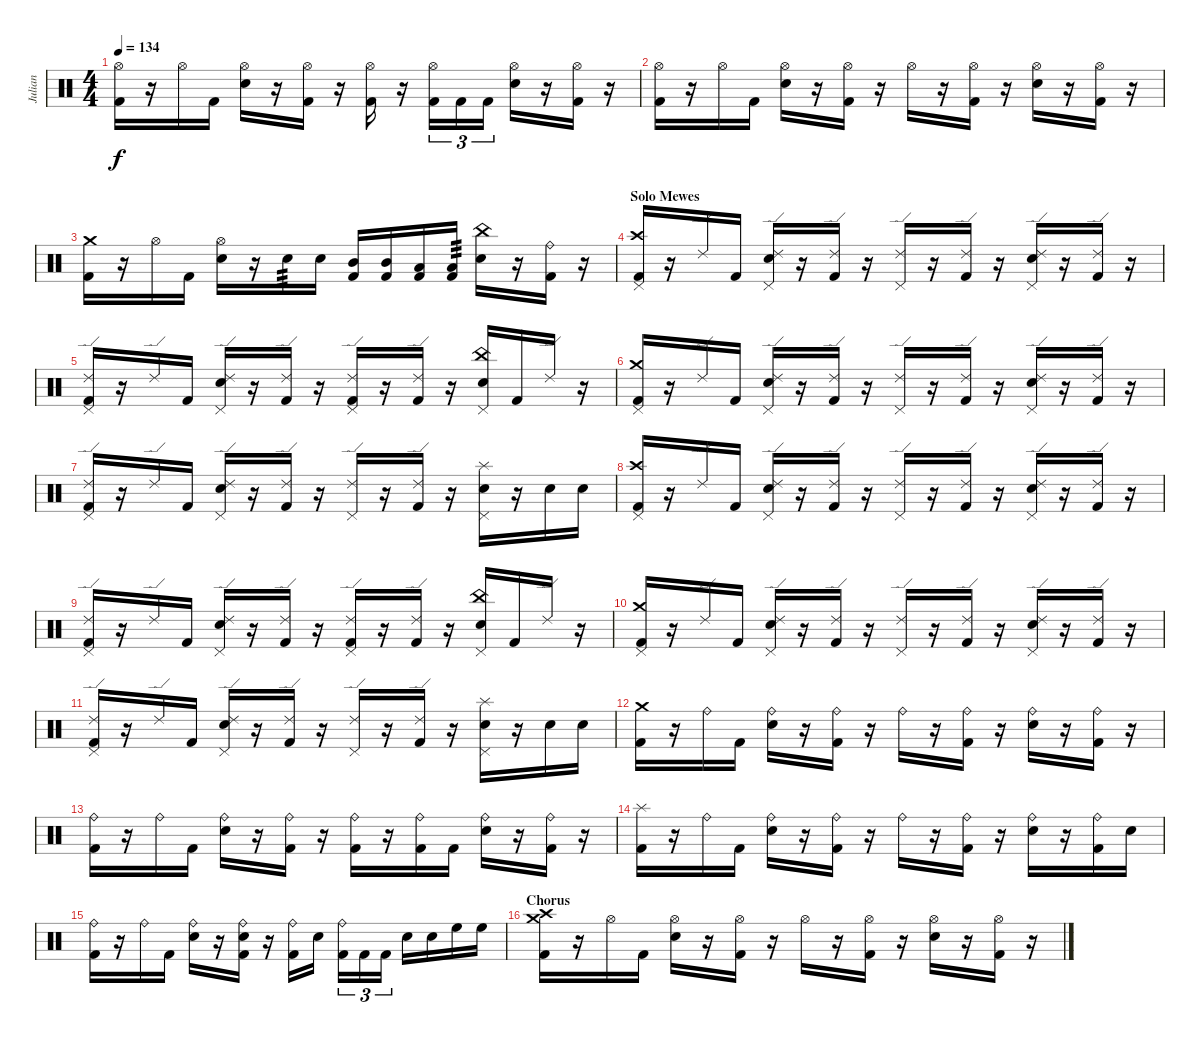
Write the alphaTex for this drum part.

\track ("Julian" "Julian") {instrument percussion}
\staff {score}
\articulation defaults
\ts (4 4)
\tempo 134
\clef neutral
\ks c
("Hi-Hat (open)" "Kick (hit) 2").16{dy f} r.16 "Hi-Hat (open)".16 "Kick (hit) 2".16 ("Hi-Hat (open)" "Electric Snare (hit)").16 r.16 ("Hi-Hat (open)" "Kick (hit) 2").16 r.16 ("Hi-Hat (open)" "Kick (hit) 2").16 r.16 ("Hi-Hat (open)" "Kick (hit) 2").16{tu (3 2)} "Kick (hit) 2".16{tu (3 2)} "Kick (hit) 2".16{tu (3 2)} ("Hi-Hat (open)" "Electric Snare (hit)").16 r.16 ("Hi-Hat (open)" "Kick (hit) 2").16 r.16 |
("Hi-Hat (open)" "Kick (hit) 2").16 r.16 "Hi-Hat (open)".16 "Kick (hit) 2".16 ("Hi-Hat (open)" "Electric Snare (hit)").16 r.16 ("Hi-Hat (open)" "Kick (hit) 2").16 r.16 "Hi-Hat (open)".16 r.16 ("Hi-Hat (open)" "Kick (hit) 2").16 r.16 ("Hi-Hat (open)" "Electric Snare (hit)").16 r.16 ("Hi-Hat (open)" "Kick (hit) 2").16 r.16 |
("Crash medium (hit)" "Kick (hit) 2").16 r.16 "Hi-Hat (open)".16 "Kick (hit) 2".16 ("Hi-Hat (open)" "Electric Snare (hit)").16 r.16 "Electric Snare (hit)".16{tp 3} "Electric Snare (hit)".16 ("Mid Tom (hit)" "Kick (hit) 2").16 ("Mid Tom (hit)" "Kick (hit) 2").16 ("Low Tom (hit)" "Kick (hit) 2").16 ("Low Tom (hit)" "Kick (hit) 2").16{tp 3} ("China (hit)" "Electric Snare (hit)").16 r.16 ("Ride (bell)" "Kick (hit) 2").16 r.16 |
\section ("" "Solo Mewes")
("Crash high (hit)" "Pedal Hi-Hat (hit)" "Kick (hit) 2").16 r.16 "Ride (edge) 2".16 "Kick (hit) 2".16 ("Ride (edge) 2" "Electric Snare (hit)" "Pedal Hi-Hat (hit)").16 r.16 ("Ride (edge) 2" "Kick (hit) 2").16 r.16 ("Ride (edge) 2" "Pedal Hi-Hat (hit)").16 r.16 ("Ride (edge) 2" "Kick (hit) 2").16 r.16 ("Ride (edge) 2" "Electric Snare (hit)" "Pedal Hi-Hat (hit)").16 r.16 ("Ride (edge) 2" "Kick (hit) 2").16 r.16 |
("Ride (edge) 2" "Pedal Hi-Hat (hit)" "Kick (hit) 2").16 r.16 "Ride (edge) 2".16 "Kick (hit) 2".16 ("Ride (edge) 2" "Electric Snare (hit)" "Pedal Hi-Hat (hit)").16 r.16 ("Ride (edge) 2" "Kick (hit) 2").16 r.16 ("Ride (edge) 2" "Pedal Hi-Hat (hit)" "Kick (hit) 2").16 r.16 ("Ride (edge) 2" "Kick (hit) 2").16 r.16 ("China (hit)" "Electric Snare (hit)" "Pedal Hi-Hat (hit)").16 "Kick (hit) 2".16 "Ride (edge) 2".16 r.16 |
("Crash medium (hit)" "Pedal Hi-Hat (hit)" "Kick (hit) 2").16 r.16 "Ride (edge) 2".16 "Kick (hit) 2".16 ("Ride (edge) 2" "Electric Snare (hit)" "Pedal Hi-Hat (hit)").16 r.16 ("Ride (edge) 2" "Kick (hit) 2").16 r.16 ("Ride (edge) 2" "Pedal Hi-Hat (hit)").16 r.16 ("Ride (edge) 2" "Kick (hit) 2").16 r.16 ("Ride (edge) 2" "Electric Snare (hit)" "Pedal Hi-Hat (hit)").16 r.16 ("Ride (edge) 2" "Kick (hit) 2").16 r.16 |
("Ride (edge) 2" "Pedal Hi-Hat (hit)" "Kick (hit) 2").16 r.16 "Ride (edge) 2".16 "Kick (hit) 2".16 ("Ride (edge) 2" "Electric Snare (hit)" "Pedal Hi-Hat (hit)").16 r.16 ("Ride (edge) 2" "Kick (hit) 2").16 r.16 ("Ride (edge) 2" "Pedal Hi-Hat (hit)").16 r.16 ("Ride (edge) 2" "Kick (hit) 2").16 r.16 ("Splash (hit)" "Electric Snare (hit)" "Pedal Hi-Hat (hit)").16 r.16 "Electric Snare (hit)".16 "Electric Snare (hit)".16 |
("Crash high (hit)" "Pedal Hi-Hat (hit)" "Kick (hit) 2").16 r.16 "Ride (edge) 2".16 "Kick (hit) 2".16 ("Ride (edge) 2" "Electric Snare (hit)" "Pedal Hi-Hat (hit)").16 r.16 ("Ride (edge) 2" "Kick (hit) 2").16 r.16 ("Ride (edge) 2" "Pedal Hi-Hat (hit)").16 r.16 ("Ride (edge) 2" "Kick (hit) 2").16 r.16 ("Ride (edge) 2" "Electric Snare (hit)" "Pedal Hi-Hat (hit)").16 r.16 ("Ride (edge) 2" "Kick (hit) 2").16 r.16 |
("Ride (edge) 2" "Pedal Hi-Hat (hit)" "Kick (hit) 2").16 r.16 "Ride (edge) 2".16 "Kick (hit) 2".16 ("Ride (edge) 2" "Electric Snare (hit)" "Pedal Hi-Hat (hit)").16 r.16 ("Ride (edge) 2" "Kick (hit) 2").16 r.16 ("Ride (edge) 2" "Pedal Hi-Hat (hit)" "Kick (hit) 2").16 r.16 ("Ride (edge) 2" "Kick (hit) 2").16 r.16 ("China (hit)" "Electric Snare (hit)" "Pedal Hi-Hat (hit)").16 "Kick (hit) 2".16 "Ride (edge) 2".16 r.16 |
("Crash medium (hit)" "Pedal Hi-Hat (hit)" "Kick (hit) 2").16 r.16 "Ride (edge) 2".16 "Kick (hit) 2".16 ("Ride (edge) 2" "Electric Snare (hit)" "Pedal Hi-Hat (hit)").16 r.16 ("Ride (edge) 2" "Kick (hit) 2").16 r.16 ("Ride (edge) 2" "Pedal Hi-Hat (hit)").16 r.16 ("Ride (edge) 2" "Kick (hit) 2").16 r.16 ("Ride (edge) 2" "Electric Snare (hit)" "Pedal Hi-Hat (hit)").16 r.16 ("Ride (edge) 2" "Kick (hit) 2").16 r.16 |
("Ride (edge) 2" "Pedal Hi-Hat (hit)" "Kick (hit) 2").16 r.16 "Ride (edge) 2".16 "Kick (hit) 2".16 ("Ride (edge) 2" "Electric Snare (hit)" "Pedal Hi-Hat (hit)").16 r.16 ("Ride (edge) 2" "Kick (hit) 2").16 r.16 ("Ride (edge) 2" "Pedal Hi-Hat (hit)").16 r.16 ("Ride (edge) 2" "Kick (hit) 2").16 r.16 ("Splash (hit)" "Electric Snare (hit)" "Pedal Hi-Hat (hit)").16 r.16 "Electric Snare (hit)".16 "Electric Snare (hit)".16 |
("Crash medium (hit)" "Kick (hit) 2").16 r.16 "Ride (bell)".16 "Kick (hit) 2".16 ("Ride (bell)" "Electric Snare (hit)").16 r.16 ("Ride (bell)" "Kick (hit) 2").16 r.16 "Ride (bell)".16 r.16 ("Ride (bell)" "Kick (hit) 2").16 r.16 ("Ride (bell)" "Electric Snare (hit)").16 r.16 ("Ride (bell)" "Kick (hit) 2").16 r.16 |
("Ride (bell)" "Kick (hit) 2").16 r.16 "Ride (bell)".16 "Kick (hit) 2".16 ("Ride (bell)" "Electric Snare (hit)").16 r.16 ("Ride (bell)" "Kick (hit) 2").16 r.16 ("Ride (bell)" "Kick (hit) 2").16 r.16 ("Ride (bell)" "Kick (hit) 2").16 "Kick (hit) 2".16 ("Ride (bell)" "Electric Snare (hit)").16 r.16 ("Ride (bell)" "Kick (hit) 2").16 r.16 |
("Splash (hit)" "Kick (hit) 2").16 r.16 "Ride (bell)".16 "Kick (hit) 2".16 ("Ride (bell)" "Electric Snare (hit)").16 r.16 ("Ride (bell)" "Kick (hit) 2").16 r.16 "Ride (bell)".16 r.16 ("Ride (bell)" "Kick (hit) 2").16 r.16 ("Ride (bell)" "Electric Snare (hit)").16 r.16 ("Ride (bell)" "Kick (hit) 2").16 "Electric Snare (hit)".16 |
("Ride (bell)" "Kick (hit) 2").16 r.16 "Ride (bell)".16 "Kick (hit) 2".16 ("Ride (bell)" "Electric Snare (hit)").16 r.16 ("Ride (bell)" "Electric Snare (hit)" "Kick (hit) 2").16 r.16 ("Ride (bell)" "Kick (hit) 2").16 "Electric Snare (hit)".16 ("Ride (bell)" "Kick (hit) 2").16{tu (3 2)} "Kick (hit) 2".16{tu (3 2)} "Kick (hit) 2".16{tu (3 2)} "Electric Snare (hit)".16 "Electric Snare (hit)".16 "High Floor Tom (hit)".16 "High Floor Tom (hit)".16 |
\section ("" "Chorus")
("Crash high (hit)" "Crash medium (hit)" "Kick (hit) 2").16 r.16 "Hi-Hat (open)".16 "Kick (hit) 2".16 ("Hi-Hat (open)" "Electric Snare (hit)").16 r.16 ("Hi-Hat (open)" "Kick (hit) 2").16 r.16 "Hi-Hat (open)".16 r.16 ("Hi-Hat (open)" "Kick (hit) 2").16 r.16 ("Hi-Hat (open)" "Electric Snare (hit)").16 r.16 ("Hi-Hat (open)" "Kick (hit) 2").16 r.16
